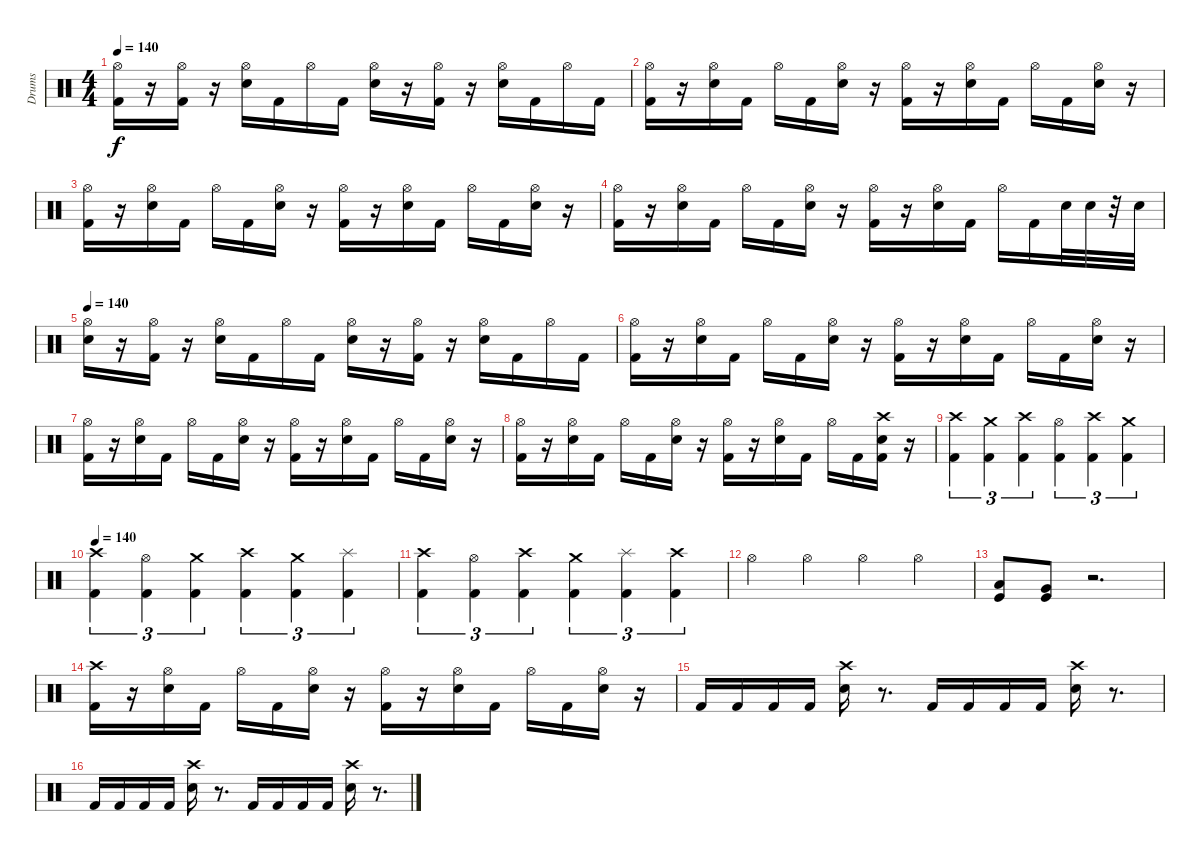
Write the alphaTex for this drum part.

\track ("Drums" "Drums") {instrument percussion}
\staff {score}
\articulation defaults
\ts (4 4)
\tempo 140
\clef neutral
\ks c
("Kick (hit) 2" "Hi-Hat (open)").16{dy f} r.16 ("Kick (hit) 2" "Hi-Hat (open)").16 r.16 ("Electric Snare (hit)" "Hi-Hat (open)").16 "Kick (hit) 2".16 "Hi-Hat (open)".16 "Kick (hit) 2".16 ("Electric Snare (hit)" "Hi-Hat (open)").16 r.16 ("Kick (hit) 2" "Hi-Hat (open)").16 r.16 ("Hi-Hat (open)" "Electric Snare (hit)").16 "Kick (hit) 2".16 "Hi-Hat (open)".16 "Kick (hit) 2".16 |
("Hi-Hat (open)" "Kick (hit) 2").16 r.16 ("Hi-Hat (open)" "Electric Snare (hit)").16 "Kick (hit) 2".16 "Hi-Hat (open)".16 "Kick (hit) 2".16 ("Hi-Hat (open)" "Electric Snare (hit)").16 r.16 ("Hi-Hat (open)" "Kick (hit) 2").16 r.16 ("Electric Snare (hit)" "Hi-Hat (open)").16 "Kick (hit) 2".16 "Hi-Hat (open)".16 "Kick (hit) 2".16 ("Electric Snare (hit)" "Hi-Hat (open)").16 r.16 |
("Kick (hit) 2" "Hi-Hat (open)").16 r.16 ("Hi-Hat (open)" "Electric Snare (hit)").16 "Kick (hit) 2".16 "Hi-Hat (open)".16 "Kick (hit) 2".16 ("Hi-Hat (open)" "Electric Snare (hit)").16 r.16 ("Kick (hit) 2" "Hi-Hat (open)").16 r.16 ("Electric Snare (hit)" "Hi-Hat (open)").16 "Kick (hit) 2".16 "Hi-Hat (open)".16 "Kick (hit) 2".16 ("Electric Snare (hit)" "Hi-Hat (open)").16 r.16 |
("Kick (hit) 2" "Hi-Hat (open)").16 r.16 ("Electric Snare (hit)" "Hi-Hat (open)").16 "Kick (hit) 2".16 "Hi-Hat (open)".16 "Kick (hit) 2".16 ("Hi-Hat (open)" "Electric Snare (hit)").16 r.16 ("Hi-Hat (open)" "Kick (hit) 2").16 r.16 ("Hi-Hat (open)" "Electric Snare (hit)").16 "Kick (hit) 2".16 "Hi-Hat (open)".16 "Kick (hit) 2".16 "Electric Snare (hit)".32 "Electric Snare (hit)".32 r.32 "Electric Snare (hit)".32 |
\tempo 140
("Electric Snare (hit)" "Hi-Hat (open)").16 r.16 ("Hi-Hat (open)" "Kick (hit) 2").16 r.16 ("Electric Snare (hit)" "Hi-Hat (open)").16 "Kick (hit) 2".16 "Hi-Hat (open)".16 "Kick (hit) 2".16 ("Electric Snare (hit)" "Hi-Hat (open)").16 r.16 ("Kick (hit) 2" "Hi-Hat (open)").16 r.16 ("Hi-Hat (open)" "Electric Snare (hit)").16 "Kick (hit) 2".16 "Hi-Hat (open)".16 "Kick (hit) 2".16 |
("Kick (hit) 2" "Hi-Hat (open)").16 r.16 ("Electric Snare (hit)" "Hi-Hat (open)").16 "Kick (hit) 2".16 "Hi-Hat (open)".16 "Kick (hit) 2".16 ("Electric Snare (hit)" "Hi-Hat (open)").16 r.16 ("Kick (hit) 2" "Hi-Hat (open)").16 r.16 ("Hi-Hat (open)" "Electric Snare (hit)").16 "Kick (hit) 2".16 "Hi-Hat (open)".16 "Kick (hit) 2".16 ("Hi-Hat (open)" "Electric Snare (hit)").16 r.16 |
("Hi-Hat (open)" "Kick (hit) 2").16 r.16 ("Electric Snare (hit)" "Hi-Hat (open)").16 "Kick (hit) 2".16 "Hi-Hat (open)".16 "Kick (hit) 2".16 ("Electric Snare (hit)" "Hi-Hat (open)").16 r.16 ("Hi-Hat (open)" "Kick (hit) 2").16 r.16 ("Hi-Hat (open)" "Electric Snare (hit)").16 "Kick (hit) 2".16 "Hi-Hat (open)".16 "Kick (hit) 2".16 ("Hi-Hat (open)" "Electric Snare (hit)").16 r.16 |
("Hi-Hat (open)" "Kick (hit) 2").16 r.16 ("Hi-Hat (open)" "Electric Snare (hit)").16 "Kick (hit) 2".16 "Hi-Hat (open)".16 "Kick (hit) 2".16 ("Electric Snare (hit)" "Hi-Hat (open)").16 r.16 ("Hi-Hat (open)" "Kick (hit) 2").16 r.16 ("Hi-Hat (open)" "Electric Snare (hit)").16 "Kick (hit) 2".16 "Hi-Hat (open)".16 "Kick (hit) 2".16 ("Kick (hit) 2" "Crash high (hit)" "Electric Snare (hit)").16 r.16 |
("Crash high (hit)" "Kick (hit) 2").4{tu (3 2)} ("Crash medium (hit)" "Kick (hit) 2").4{tu (3 2)} ("Crash high (hit)" "Kick (hit) 2").4{tu (3 2)} ("Hi-Hat (open)" "Kick (hit) 2").4{tu (3 2)} ("Crash high (hit)" "Kick (hit) 2").4{tu (3 2)} ("Crash medium (hit)" "Kick (hit) 2").4{tu (3 2)} |
\tempo 140
("Crash high (hit)" "Kick (hit) 2").4{tu (3 2)} ("Hi-Hat (open)" "Kick (hit) 2").4{tu (3 2)} ("Crash medium (hit)" "Kick (hit) 2").4{tu (3 2)} ("Crash high (hit)" "Kick (hit) 2").4{tu (3 2)} ("Crash medium (hit)" "Kick (hit) 2").4{tu (3 2)} ("Splash (hit)" "Kick (hit) 2").4{tu (3 2)} |
("Crash high (hit)" "Kick (hit) 2").4{tu (3 2)} ("Hi-Hat (open)" "Kick (hit) 2").4{tu (3 2)} ("Crash high (hit)" "Kick (hit) 2").4{tu (3 2)} ("Crash medium (hit)" "Kick (hit) 2").4{tu (3 2)} ("Splash (hit)" "Kick (hit) 2").4{tu (3 2)} ("Crash high (hit)" "Kick (hit) 2").4{tu (3 2)} |
"Hi-Hat (open)".4 "Hi-Hat (open)".4 "Hi-Hat (open)".4 "Hi-Hat (open)".4 |
("Kick (hit)" "Low Floor Tom (hit)").8 ("Very Low Tom (hit)" "Kick (hit)").8 r.2{d} |
("Crash high (hit)" "Kick (hit) 2").16 r.16 ("Hi-Hat (open)" "Electric Snare (hit)").16 "Kick (hit) 2".16 "Hi-Hat (open)".16 "Kick (hit) 2".16 ("Electric Snare (hit)" "Hi-Hat (open)").16 r.16 ("Kick (hit) 2" "Hi-Hat (open)").16 r.16 ("Electric Snare (hit)" "Hi-Hat (open)").16 "Kick (hit) 2".16 "Hi-Hat (open)".16 "Kick (hit) 2".16 ("Electric Snare (hit)" "Hi-Hat (open)").16 r.16 |
"Kick (hit) 2".16 "Kick (hit) 2".16 "Kick (hit) 2".16 "Kick (hit) 2".16 ("Crash high (hit)" "Electric Snare (hit)").16 r.8{d} "Kick (hit) 2".16 "Kick (hit) 2".16 "Kick (hit) 2".16 "Kick (hit) 2".16 ("Crash high (hit)" "Electric Snare (hit)").16 r.8{d} |
"Kick (hit) 2".16 "Kick (hit) 2".16 "Kick (hit) 2".16 "Kick (hit) 2".16 ("Electric Snare (hit)" "Crash high (hit)").16 r.8{d} "Kick (hit) 2".16 "Kick (hit) 2".16 "Kick (hit) 2".16 "Kick (hit) 2".16 ("Crash high (hit)" "Electric Snare (hit)").16 r.8{d}
